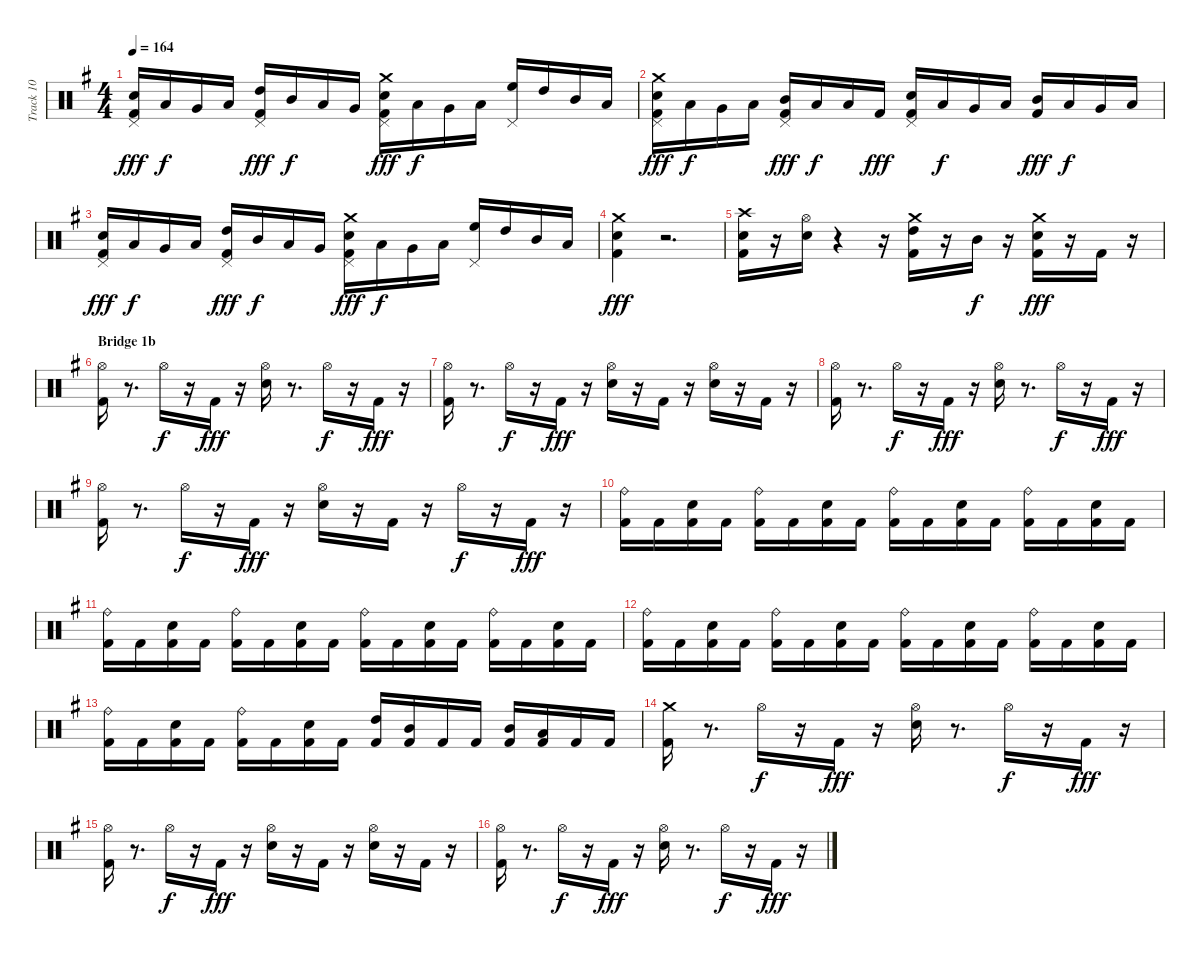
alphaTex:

\track ("Track 10" "Track 10") {instrument percussion}
\staff {score}
\articulation defaults
\ts (4 4)
\tempo 164
\clef neutral
\ks eminor
("Electric Snare (hit)" "Kick (hit) 2" "Pedal Hi-Hat (hit)").16{dy fff} "Low Floor Tom (hit)".16{dy f} "Very Low Tom (hit)".16 "Low Floor Tom (hit)".16 ("Kick (hit) 2" "High Tom (hit)" "Pedal Hi-Hat (hit)").16{dy fff} "Mid Tom (hit)".16{dy f} "Low Tom (hit)".16 "Very Low Tom (hit)".16 ("Kick (hit) 2" "Electric Snare (hit)" "Crash medium (hit)" "Pedal Hi-Hat (hit)").16{dy fff} "Low Floor Tom (hit)".16{dy f} "Very Low Tom (hit)".16 "Low Floor Tom (hit)".16 ("Pedal Hi-Hat (hit)" "High Floor Tom (hit)").16 "High Tom (hit)".16 "Mid Tom (hit)".16 "Low Tom (hit)".16 |
("Electric Snare (hit)" "Kick (hit) 2" "Crash medium (hit)" "Pedal Hi-Hat (hit)").16{dy fff} "Low Floor Tom (hit)".16{dy f} "Very Low Tom (hit)".16 "Low Floor Tom (hit)".16 ("Kick (hit) 2" "Pedal Hi-Hat (hit)" "Mid Tom (hit)").16{dy fff} "Low Tom (hit)".16{dy f} "Low Floor Tom (hit)".16 "Kick (hit) 2".16{dy fff} ("Kick (hit) 2" "Electric Snare (hit)" "Pedal Hi-Hat (hit)").16 "Low Floor Tom (hit)".16{dy f} "Very Low Tom (hit)".16 "Low Floor Tom (hit)".16 ("Kick (hit) 2" "Mid Tom (hit)").16{dy fff} "Low Tom (hit)".16{dy f} "Very Low Tom (hit)".16 "Low Tom (hit)".16 |
("Kick (hit) 2" "Electric Snare (hit)" "Pedal Hi-Hat (hit)").16{dy fff} "Low Floor Tom (hit)".16{dy f} "Very Low Tom (hit)".16 "Low Floor Tom (hit)".16 ("Kick (hit) 2" "Pedal Hi-Hat (hit)" "High Tom (hit)").16{dy fff} "Mid Tom (hit)".16{dy f} "Low Tom (hit)".16 "Very Low Tom (hit)".16 ("Electric Snare (hit)" "Kick (hit) 2" "Pedal Hi-Hat (hit)" "Crash medium (hit)").16{dy fff} "Low Floor Tom (hit)".16{dy f} "Very Low Tom (hit)".16 "Low Floor Tom (hit)".16 ("Pedal Hi-Hat (hit)" "High Floor Tom (hit)").16 "High Tom (hit)".16 "Mid Tom (hit)".16 "Low Tom (hit)".16 |
("Electric Snare (hit)" "Kick (hit) 2" "Crash medium (hit)").4{dy fff} r.2{d} |
("Kick (hit) 2" "Electric Snare (hit)" "Crash high (hit)").16 r.16 ("Electric Snare (hit)" "Hi-Hat (open)").16 r.4 r.16 ("Kick (hit) 2" "Crash medium (hit)" "High Tom (hit)").16 r.16 "Mid Tom (hit)".16{dy f} r.16 ("Kick (hit) 2" "Electric Snare (hit)" "Crash medium (hit)").16{dy fff} r.16 "Kick (hit) 2".16 r.16 |
\section ("" "Bridge 1b")
("Kick (hit) 2" "Hi-Hat (open)").16 r.8{d} "Hi-Hat (open)".16{dy f} r.16 "Kick (hit) 2".16{dy fff} r.16 ("Electric Snare (hit)" "Hi-Hat (open)").16 r.8{d} "Hi-Hat (open)".16{dy f} r.16 "Kick (hit) 2".16{dy fff} r.16 |
("Kick (hit) 2" "Hi-Hat (open)").16 r.8{d} "Hi-Hat (open)".16{dy f} r.16 "Kick (hit) 2".16{dy fff} r.16 ("Electric Snare (hit)" "Hi-Hat (open)").16 r.16 "Kick (hit) 2".16 r.16 ("Electric Snare (hit)" "Hi-Hat (open)").16 r.16 "Kick (hit) 2".16 r.16 |
("Kick (hit) 2" "Hi-Hat (open)").16 r.8{d} "Hi-Hat (open)".16{dy f} r.16 "Kick (hit) 2".16{dy fff} r.16 ("Electric Snare (hit)" "Hi-Hat (open)").16 r.8{d} "Hi-Hat (open)".16{dy f} r.16 "Kick (hit) 2".16{dy fff} r.16 |
("Kick (hit) 2" "Hi-Hat (open)").16 r.8{d} "Hi-Hat (open)".16{dy f} r.16 "Kick (hit) 2".16{dy fff} r.16 ("Electric Snare (hit)" "Hi-Hat (open)").16 r.16 "Kick (hit) 2".16 r.16 "Hi-Hat (open)".16{dy f} r.16 "Kick (hit) 2".16{dy fff} r.16 |
("Kick (hit) 2" "Ride (bell)").16 "Kick (hit) 2".16 ("Electric Snare (hit)" "Kick (hit) 2").16 "Kick (hit) 2".16 ("Kick (hit) 2" "Ride (bell)").16 "Kick (hit) 2".16 ("Electric Snare (hit)" "Kick (hit) 2").16 "Kick (hit) 2".16 ("Kick (hit) 2" "Ride (bell)").16 "Kick (hit) 2".16 ("Electric Snare (hit)" "Kick (hit) 2").16 "Kick (hit) 2".16 ("Kick (hit) 2" "Ride (bell)").16 "Kick (hit) 2".16 ("Kick (hit) 2" "Electric Snare (hit)").16 "Kick (hit) 2".16 |
("Kick (hit) 2" "Ride (bell)").16 "Kick (hit) 2".16 ("Electric Snare (hit)" "Kick (hit) 2").16 "Kick (hit) 2".16 ("Kick (hit) 2" "Ride (bell)").16 "Kick (hit) 2".16 ("Electric Snare (hit)" "Kick (hit) 2").16 "Kick (hit) 2".16 ("Kick (hit) 2" "Ride (bell)").16 "Kick (hit) 2".16 ("Electric Snare (hit)" "Kick (hit) 2").16 "Kick (hit) 2".16 ("Kick (hit) 2" "Ride (bell)").16 "Kick (hit) 2".16 ("Kick (hit) 2" "Electric Snare (hit)").16 "Kick (hit) 2".16 |
("Kick (hit) 2" "Ride (bell)").16 "Kick (hit) 2".16 ("Kick (hit) 2" "Electric Snare (hit)").16 "Kick (hit) 2".16 ("Kick (hit) 2" "Ride (bell)").16 "Kick (hit) 2".16 ("Electric Snare (hit)" "Kick (hit) 2").16 "Kick (hit) 2".16 ("Kick (hit) 2" "Ride (bell)").16 "Kick (hit) 2".16 ("Kick (hit) 2" "Electric Snare (hit)").16 "Kick (hit) 2".16 ("Kick (hit) 2" "Ride (bell)").16 "Kick (hit) 2".16 ("Kick (hit) 2" "Electric Snare (hit)").16 "Kick (hit) 2".16 |
("Kick (hit) 2" "Ride (bell)").16 "Kick (hit) 2".16 ("Electric Snare (hit)" "Kick (hit) 2").16 "Kick (hit) 2".16 ("Kick (hit) 2" "Ride (bell)").16 "Kick (hit) 2".16 ("Kick (hit) 2" "Electric Snare (hit)").16 "Kick (hit) 2".16 ("Kick (hit) 2" "High Tom (hit)").16 ("Kick (hit) 2" "Mid Tom (hit)").16 "Kick (hit) 2".16 "Kick (hit) 2".16 ("Kick (hit) 2" "Mid Tom (hit)").16 ("Kick (hit) 2" "Low Tom (hit)").16 "Kick (hit) 2".16 "Kick (hit) 2".16 |
("Kick (hit) 2" "Crash medium (hit)").16 r.8{d} "Hi-Hat (open)".16{dy f} r.16 "Kick (hit) 2".16{dy fff} r.16 ("Electric Snare (hit)" "Hi-Hat (open)").16 r.8{d} "Hi-Hat (open)".16{dy f} r.16 "Kick (hit) 2".16{dy fff} r.16 |
("Kick (hit) 2" "Hi-Hat (open)").16 r.8{d} "Hi-Hat (open)".16{dy f} r.16 "Kick (hit) 2".16{dy fff} r.16 ("Electric Snare (hit)" "Hi-Hat (open)").16 r.16 "Kick (hit) 2".16 r.16 ("Electric Snare (hit)" "Hi-Hat (open)").16 r.16 "Kick (hit) 2".16 r.16 |
("Kick (hit) 2" "Hi-Hat (open)").16 r.8{d} "Hi-Hat (open)".16{dy f} r.16 "Kick (hit) 2".16{dy fff} r.16 ("Electric Snare (hit)" "Hi-Hat (open)").16 r.8{d} "Hi-Hat (open)".16{dy f} r.16 "Kick (hit) 2".16{dy fff} r.16
